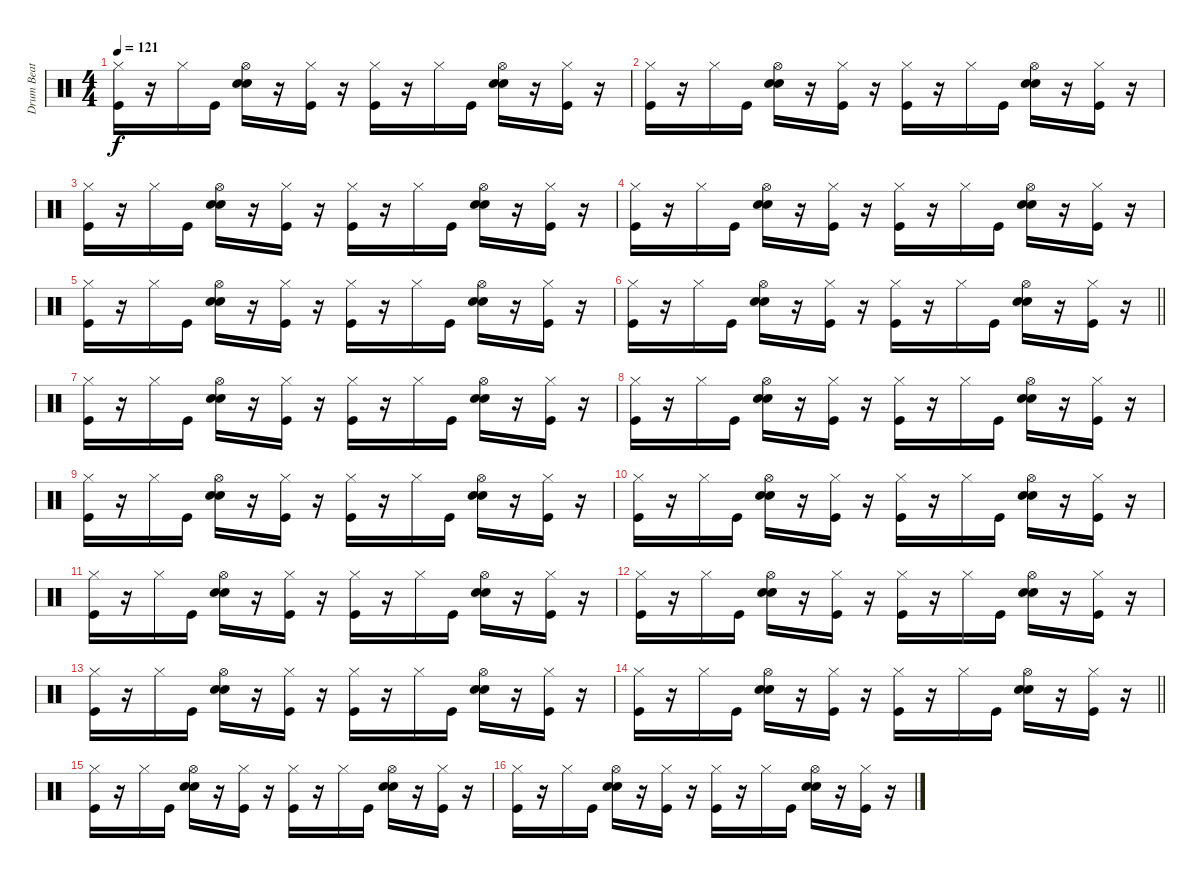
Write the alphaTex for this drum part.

\track ("Drum Beat" "Drum Beat") {instrument percussion}
\staff {score}
\articulation defaults
\ts (4 4)
\tempo 121
\clef neutral
\ks c
("Hi-Hat (closed)" "Kick (hit)").16{dy f} r.16 "Hi-Hat (closed)".16 "Kick (hit)".16 ("Hi-Hat (open)" "Snare (hit) 2" "Hand Clap (hit)").16 r.16 ("Hi-Hat (closed)" "Kick (hit)").16 r.16 ("Hi-Hat (closed)" "Kick (hit)").16 r.16 "Hi-Hat (closed)".16 "Kick (hit)".16 ("Hi-Hat (open)" "Snare (hit) 2" "Hand Clap (hit)").16 r.16 ("Hi-Hat (closed)" "Kick (hit)").16 r.16 |
("Hi-Hat (closed)" "Kick (hit)").16 r.16 "Hi-Hat (closed)".16 "Kick (hit)".16 ("Hi-Hat (open)" "Snare (hit) 2" "Hand Clap (hit)").16 r.16 ("Hi-Hat (closed)" "Kick (hit)").16 r.16 ("Hi-Hat (closed)" "Kick (hit)").16 r.16 "Hi-Hat (closed)".16 "Kick (hit)".16 ("Hi-Hat (open)" "Snare (hit) 2" "Hand Clap (hit)").16 r.16 ("Hi-Hat (closed)" "Kick (hit)").16 r.16 |
("Hi-Hat (closed)" "Kick (hit)").16 r.16 "Hi-Hat (closed)".16 "Kick (hit)".16 ("Hi-Hat (open)" "Snare (hit) 2" "Hand Clap (hit)").16 r.16 ("Hi-Hat (closed)" "Kick (hit)").16 r.16 ("Hi-Hat (closed)" "Kick (hit)").16 r.16 "Hi-Hat (closed)".16 "Kick (hit)".16 ("Hi-Hat (open)" "Snare (hit) 2" "Hand Clap (hit)").16 r.16 ("Hi-Hat (closed)" "Kick (hit)").16 r.16 |
("Hi-Hat (closed)" "Kick (hit)").16 r.16 "Hi-Hat (closed)".16 "Kick (hit)".16 ("Hi-Hat (open)" "Snare (hit) 2" "Hand Clap (hit)").16 r.16 ("Hi-Hat (closed)" "Kick (hit)").16 r.16 ("Hi-Hat (closed)" "Kick (hit)").16 r.16 "Hi-Hat (closed)".16 "Kick (hit)".16 ("Hi-Hat (open)" "Snare (hit) 2" "Hand Clap (hit)").16 r.16 ("Hi-Hat (closed)" "Kick (hit)").16 r.16 |
("Hi-Hat (closed)" "Kick (hit)").16 r.16 "Hi-Hat (closed)".16 "Kick (hit)".16 ("Hi-Hat (open)" "Snare (hit) 2" "Hand Clap (hit)").16 r.16 ("Hi-Hat (closed)" "Kick (hit)").16 r.16 ("Hi-Hat (closed)" "Kick (hit)").16 r.16 "Hi-Hat (closed)".16 "Kick (hit)".16 ("Hi-Hat (open)" "Snare (hit) 2" "Hand Clap (hit)").16 r.16 ("Hi-Hat (closed)" "Kick (hit)").16 r.16 |
\barLineRight lightlight
("Hi-Hat (closed)" "Kick (hit)").16 r.16 "Hi-Hat (closed)".16 "Kick (hit)".16 ("Hi-Hat (open)" "Snare (hit) 2" "Hand Clap (hit)").16 r.16 ("Hi-Hat (closed)" "Kick (hit)").16 r.16 ("Hi-Hat (closed)" "Kick (hit)").16 r.16 "Hi-Hat (closed)".16 "Kick (hit)".16 ("Hi-Hat (open)" "Snare (hit) 2" "Hand Clap (hit)").16 r.16 ("Hi-Hat (closed)" "Kick (hit)").16 r.16 |
("Hi-Hat (closed)" "Kick (hit)").16 r.16 "Hi-Hat (closed)".16 "Kick (hit)".16 ("Hi-Hat (open)" "Snare (hit) 2" "Hand Clap (hit)").16 r.16 ("Hi-Hat (closed)" "Kick (hit)").16 r.16 ("Hi-Hat (closed)" "Kick (hit)").16 r.16 "Hi-Hat (closed)".16 "Kick (hit)".16 ("Hi-Hat (open)" "Snare (hit) 2" "Hand Clap (hit)").16 r.16 ("Hi-Hat (closed)" "Kick (hit)").16 r.16 |
("Hi-Hat (closed)" "Kick (hit)").16 r.16 "Hi-Hat (closed)".16 "Kick (hit)".16 ("Hi-Hat (open)" "Snare (hit) 2" "Hand Clap (hit)").16 r.16 ("Hi-Hat (closed)" "Kick (hit)").16 r.16 ("Hi-Hat (closed)" "Kick (hit)").16 r.16 "Hi-Hat (closed)".16 "Kick (hit)".16 ("Hi-Hat (open)" "Snare (hit) 2" "Hand Clap (hit)").16 r.16 ("Hi-Hat (closed)" "Kick (hit)").16 r.16 |
("Hi-Hat (closed)" "Kick (hit)").16 r.16 "Hi-Hat (closed)".16 "Kick (hit)".16 ("Hi-Hat (open)" "Snare (hit) 2" "Hand Clap (hit)").16 r.16 ("Hi-Hat (closed)" "Kick (hit)").16 r.16 ("Hi-Hat (closed)" "Kick (hit)").16 r.16 "Hi-Hat (closed)".16 "Kick (hit)".16 ("Hi-Hat (open)" "Snare (hit) 2" "Hand Clap (hit)").16 r.16 ("Hi-Hat (closed)" "Kick (hit)").16 r.16 |
("Hi-Hat (closed)" "Kick (hit)").16 r.16 "Hi-Hat (closed)".16 "Kick (hit)".16 ("Hi-Hat (open)" "Snare (hit) 2" "Hand Clap (hit)").16 r.16 ("Hi-Hat (closed)" "Kick (hit)").16 r.16 ("Hi-Hat (closed)" "Kick (hit)").16 r.16 "Hi-Hat (closed)".16 "Kick (hit)".16 ("Hi-Hat (open)" "Snare (hit) 2" "Hand Clap (hit)").16 r.16 ("Hi-Hat (closed)" "Kick (hit)").16 r.16 |
("Hi-Hat (closed)" "Kick (hit)").16 r.16 "Hi-Hat (closed)".16 "Kick (hit)".16 ("Hi-Hat (open)" "Snare (hit) 2" "Hand Clap (hit)").16 r.16 ("Hi-Hat (closed)" "Kick (hit)").16 r.16 ("Hi-Hat (closed)" "Kick (hit)").16 r.16 "Hi-Hat (closed)".16 "Kick (hit)".16 ("Hi-Hat (open)" "Snare (hit) 2" "Hand Clap (hit)").16 r.16 ("Hi-Hat (closed)" "Kick (hit)").16 r.16 |
("Hi-Hat (closed)" "Kick (hit)").16 r.16 "Hi-Hat (closed)".16 "Kick (hit)".16 ("Hi-Hat (open)" "Snare (hit) 2" "Hand Clap (hit)").16 r.16 ("Hi-Hat (closed)" "Kick (hit)").16 r.16 ("Hi-Hat (closed)" "Kick (hit)").16 r.16 "Hi-Hat (closed)".16 "Kick (hit)".16 ("Hi-Hat (open)" "Snare (hit) 2" "Hand Clap (hit)").16 r.16 ("Hi-Hat (closed)" "Kick (hit)").16 r.16 |
("Hi-Hat (closed)" "Kick (hit)").16 r.16 "Hi-Hat (closed)".16 "Kick (hit)".16 ("Hi-Hat (open)" "Snare (hit) 2" "Hand Clap (hit)").16 r.16 ("Hi-Hat (closed)" "Kick (hit)").16 r.16 ("Hi-Hat (closed)" "Kick (hit)").16 r.16 "Hi-Hat (closed)".16 "Kick (hit)".16 ("Hi-Hat (open)" "Snare (hit) 2" "Hand Clap (hit)").16 r.16 ("Hi-Hat (closed)" "Kick (hit)").16 r.16 |
\barLineRight lightlight
("Hi-Hat (closed)" "Kick (hit)").16 r.16 "Hi-Hat (closed)".16 "Kick (hit)".16 ("Hi-Hat (open)" "Snare (hit) 2" "Hand Clap (hit)").16 r.16 ("Hi-Hat (closed)" "Kick (hit)").16 r.16 ("Hi-Hat (closed)" "Kick (hit)").16 r.16 "Hi-Hat (closed)".16 "Kick (hit)".16 ("Hi-Hat (open)" "Snare (hit) 2" "Hand Clap (hit)").16 r.16 ("Hi-Hat (closed)" "Kick (hit)").16 r.16 |
("Hi-Hat (closed)" "Kick (hit)").16 r.16 "Hi-Hat (closed)".16 "Kick (hit)".16 ("Hi-Hat (open)" "Snare (hit) 2" "Hand Clap (hit)").16 r.16 ("Hi-Hat (closed)" "Kick (hit)").16 r.16 ("Hi-Hat (closed)" "Kick (hit)").16 r.16 "Hi-Hat (closed)".16 "Kick (hit)".16 ("Hi-Hat (open)" "Snare (hit) 2" "Hand Clap (hit)").16 r.16 ("Hi-Hat (closed)" "Kick (hit)").16 r.16 |
("Hi-Hat (closed)" "Kick (hit)").16 r.16 "Hi-Hat (closed)".16 "Kick (hit)".16 ("Hi-Hat (open)" "Snare (hit) 2" "Hand Clap (hit)").16 r.16 ("Hi-Hat (closed)" "Kick (hit)").16 r.16 ("Hi-Hat (closed)" "Kick (hit)").16 r.16 "Hi-Hat (closed)".16 "Kick (hit)".16 ("Hi-Hat (open)" "Snare (hit) 2" "Hand Clap (hit)").16 r.16 ("Hi-Hat (closed)" "Kick (hit)").16 r.16
